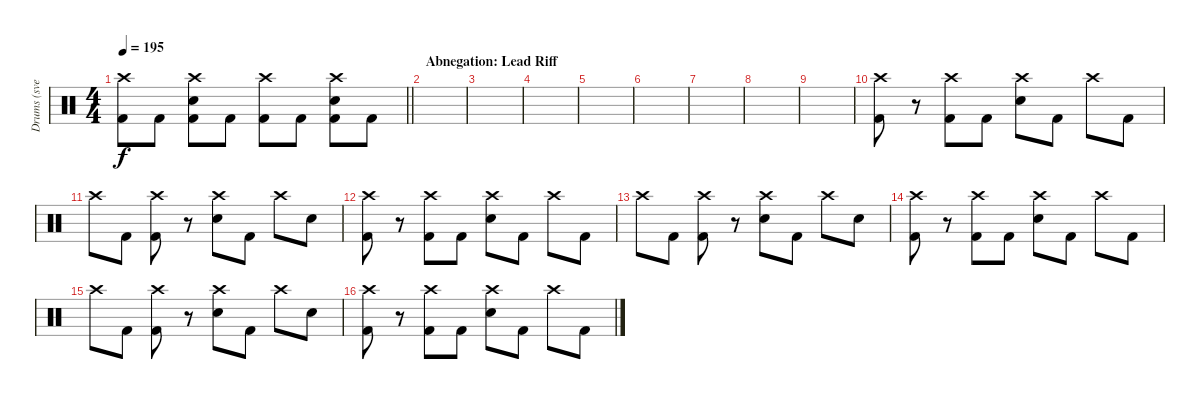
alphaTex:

\track ("Drums (svelle)" "Drums (sve") {instrument percussion}
\staff {score}
\articulation defaults
\ts (4 4)
\tempo 195
\clef neutral
\barLineRight lightlight
\ks c
("Crash high (hit)" "Kick (hit) 2").8{dy f} "Kick (hit) 2".8 ("Crash high (hit)" "Electric Snare (hit)" "Kick (hit) 2").8 "Kick (hit) 2".8 ("Crash high (hit)" "Kick (hit) 2").8 "Kick (hit) 2".8 ("Crash high (hit)" "Electric Snare (hit)" "Kick (hit) 2").8 "Kick (hit) 2".8 |
\section ("" "Abnegation: Lead Riff")
|
|
|
|
|
|
|
|
("Crash high (hit)" "Kick (hit) 2").8 r.8 ("Crash high (hit)" "Kick (hit) 2").8 "Kick (hit) 2".8 ("Crash high (hit)" "Electric Snare (hit)").8 "Kick (hit) 2".8 "Crash high (hit)".8 "Kick (hit) 2".8 |
"Crash high (hit)".8 "Kick (hit) 2".8 ("Crash high (hit)" "Kick (hit) 2").8 r.8 ("Crash high (hit)" "Electric Snare (hit)").8 "Kick (hit) 2".8 "Crash high (hit)".8 "Electric Snare (hit)".8 |
("Crash high (hit)" "Kick (hit) 2").8 r.8 ("Crash high (hit)" "Kick (hit) 2").8 "Kick (hit) 2".8 ("Crash high (hit)" "Electric Snare (hit)").8 "Kick (hit) 2".8 "Crash high (hit)".8 "Kick (hit) 2".8 |
"Crash high (hit)".8 "Kick (hit) 2".8 ("Crash high (hit)" "Kick (hit) 2").8 r.8 ("Crash high (hit)" "Electric Snare (hit)").8 "Kick (hit) 2".8 "Crash high (hit)".8 "Electric Snare (hit)".8 |
("Crash high (hit)" "Kick (hit) 2").8 r.8 ("Crash high (hit)" "Kick (hit) 2").8 "Kick (hit) 2".8 ("Crash high (hit)" "Electric Snare (hit)").8 "Kick (hit) 2".8 "Crash high (hit)".8 "Kick (hit) 2".8 |
"Crash high (hit)".8 "Kick (hit) 2".8 ("Crash high (hit)" "Kick (hit) 2").8 r.8 ("Crash high (hit)" "Electric Snare (hit)").8 "Kick (hit) 2".8 "Crash high (hit)".8 "Electric Snare (hit)".8 |
("Crash high (hit)" "Kick (hit) 2").8 r.8 ("Crash high (hit)" "Kick (hit) 2").8 "Kick (hit) 2".8 ("Crash high (hit)" "Electric Snare (hit)").8 "Kick (hit) 2".8 "Crash high (hit)".8 "Kick (hit) 2".8
